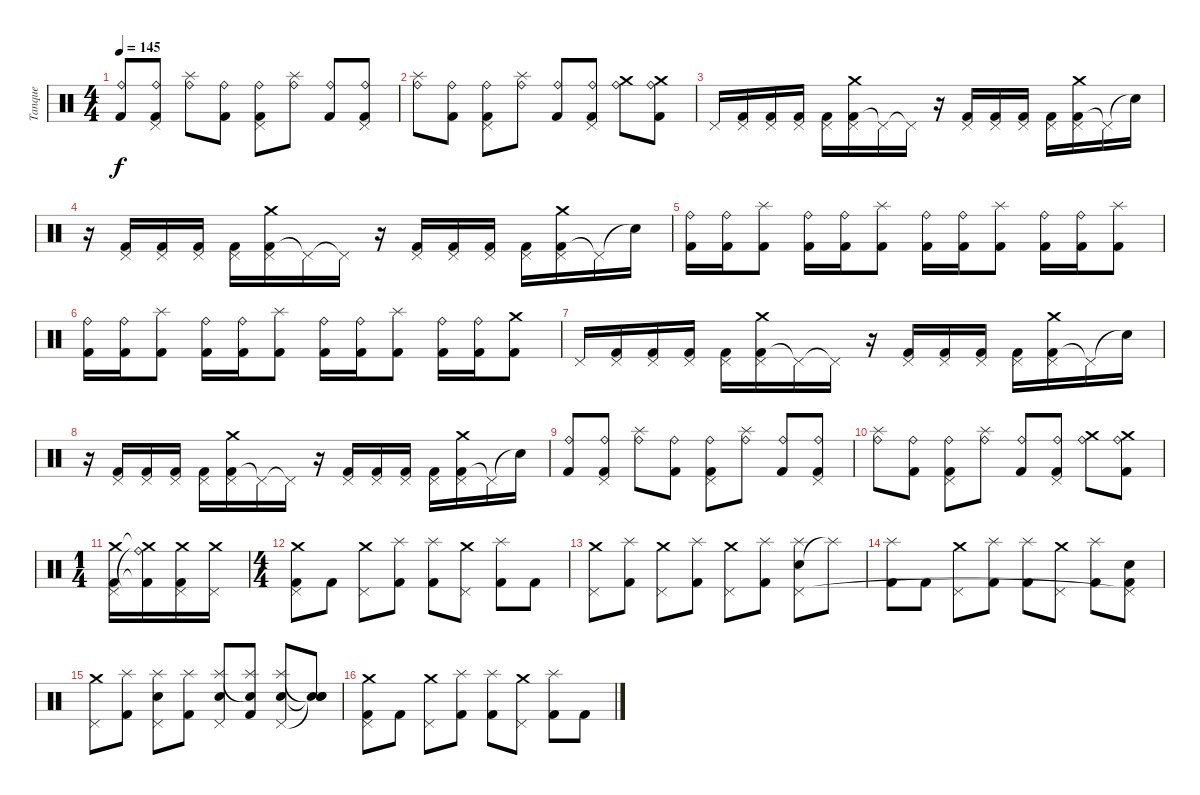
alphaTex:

\track ("Tanque" "Tanque") {instrument percussion}
\staff {score}
\articulation defaults
\ts (4 4)
\tempo 145
\clef neutral
\ks c
("Kick (hit) 2" "Ride (bell)").8{dy f} ("Kick (hit) 2" "Ride (bell)" "Pedal Hi-Hat (hit)").8 ("Ride (bell)" "Splash (hit)").8 ("Kick (hit) 2" "Ride (bell)").8 ("Kick (hit) 2" "Ride (bell)" "Pedal Hi-Hat (hit)").8 ("Ride (bell)" "Splash (hit)").8 ("Kick (hit) 2" "Ride (bell)").8 ("Kick (hit) 2" "Ride (bell)" "Pedal Hi-Hat (hit)").8 |
("Ride (bell)" "Splash (hit)").8 ("Kick (hit) 2" "Ride (bell)").8 ("Kick (hit) 2" "Ride (bell)" "Pedal Hi-Hat (hit)").8 ("Ride (bell)" "Splash (hit)").8 ("Kick (hit) 2" "Ride (bell)").8 ("Kick (hit) 2" "Ride (bell)" "Pedal Hi-Hat (hit)").8 ("Ride (bell)" "Crash medium (hit)").8 ("Kick (hit) 2" "Ride (bell)" "Crash medium (hit)").8 |
"Pedal Hi-Hat (hit)".16 ("Kick (hit) 2" "Pedal Hi-Hat (hit)").16 ("Kick (hit) 2" "Pedal Hi-Hat (hit)").16 ("Kick (hit) 2" "Pedal Hi-Hat (hit)").16 ("Kick (hit) 2" "Pedal Hi-Hat (hit)").16 ("Kick (hit) 2" "Pedal Hi-Hat (hit)" "Crash medium (hit)").16 "Pedal Hi-Hat (hit)"{t}.16 "Pedal Hi-Hat (hit)"{t}.16 r.16 ("Kick (hit) 2" "Pedal Hi-Hat (hit)").16 ("Kick (hit) 2" "Pedal Hi-Hat (hit)").16 ("Kick (hit) 2" "Pedal Hi-Hat (hit)").16 ("Kick (hit) 2" "Pedal Hi-Hat (hit)").16 ("Kick (hit) 2" "Pedal Hi-Hat (hit)" "Crash medium (hit)").16 "Pedal Hi-Hat (hit)"{t}.16 "Snare (hit)"{t}.16 |
r.16 ("Kick (hit) 2" "Pedal Hi-Hat (hit)").16 ("Kick (hit) 2" "Pedal Hi-Hat (hit)").16 ("Kick (hit) 2" "Pedal Hi-Hat (hit)").16 ("Kick (hit) 2" "Pedal Hi-Hat (hit)").16 ("Kick (hit) 2" "Pedal Hi-Hat (hit)" "Crash medium (hit)").16 "Pedal Hi-Hat (hit)"{t}.16 "Pedal Hi-Hat (hit)"{t}.16 r.16 ("Kick (hit) 2" "Pedal Hi-Hat (hit)").16 ("Kick (hit) 2" "Pedal Hi-Hat (hit)").16 ("Kick (hit) 2" "Pedal Hi-Hat (hit)").16 ("Kick (hit) 2" "Pedal Hi-Hat (hit)").16 ("Kick (hit) 2" "Pedal Hi-Hat (hit)" "Crash medium (hit)").16 "Pedal Hi-Hat (hit)"{t}.16 "Snare (hit)"{t}.16 |
("Kick (hit) 2" "Ride (bell)").16 ("Kick (hit) 2" "Ride (bell)").16 ("Kick (hit) 2" "Splash (hit)").8 ("Kick (hit) 2" "Ride (bell)").16 ("Kick (hit) 2" "Ride (bell)").16 ("Kick (hit) 2" "Splash (hit)").8 ("Kick (hit) 2" "Ride (bell)").16 ("Kick (hit) 2" "Ride (bell)").16 ("Kick (hit) 2" "Splash (hit)").8 ("Kick (hit) 2" "Ride (bell)").16 ("Kick (hit) 2" "Ride (bell)").16 ("Kick (hit) 2" "Splash (hit)").8 |
("Kick (hit) 2" "Ride (bell)").16 ("Kick (hit) 2" "Ride (bell)").16 ("Kick (hit) 2" "Splash (hit)").8 ("Kick (hit) 2" "Ride (bell)").16 ("Kick (hit) 2" "Ride (bell)").16 ("Kick (hit) 2" "Splash (hit)").8 ("Kick (hit) 2" "Ride (bell)").16 ("Kick (hit) 2" "Ride (bell)").16 ("Kick (hit) 2" "Splash (hit)").8 ("Kick (hit) 2" "Ride (bell)").16 ("Kick (hit) 2" "Ride (bell)").16 ("Kick (hit) 2" "Crash medium (hit)").8 |
"Pedal Hi-Hat (hit)".16 ("Kick (hit) 2" "Pedal Hi-Hat (hit)").16 ("Kick (hit) 2" "Pedal Hi-Hat (hit)").16 ("Kick (hit) 2" "Pedal Hi-Hat (hit)").16 ("Kick (hit) 2" "Pedal Hi-Hat (hit)").16 ("Kick (hit) 2" "Pedal Hi-Hat (hit)" "Crash medium (hit)").16 "Pedal Hi-Hat (hit)"{t}.16 "Pedal Hi-Hat (hit)"{t}.16 r.16 ("Kick (hit) 2" "Pedal Hi-Hat (hit)").16 ("Kick (hit) 2" "Pedal Hi-Hat (hit)").16 ("Kick (hit) 2" "Pedal Hi-Hat (hit)").16 ("Kick (hit) 2" "Pedal Hi-Hat (hit)").16 ("Kick (hit) 2" "Pedal Hi-Hat (hit)" "Crash medium (hit)").16 "Pedal Hi-Hat (hit)"{t}.16 "Snare (hit)"{t}.16 |
r.16 ("Kick (hit) 2" "Pedal Hi-Hat (hit)").16 ("Kick (hit) 2" "Pedal Hi-Hat (hit)").16 ("Kick (hit) 2" "Pedal Hi-Hat (hit)").16 ("Kick (hit) 2" "Pedal Hi-Hat (hit)").16 ("Kick (hit) 2" "Pedal Hi-Hat (hit)" "Crash medium (hit)").16 "Pedal Hi-Hat (hit)"{t}.16 "Pedal Hi-Hat (hit)"{t}.16 r.16 ("Kick (hit) 2" "Pedal Hi-Hat (hit)").16 ("Kick (hit) 2" "Pedal Hi-Hat (hit)").16 ("Kick (hit) 2" "Pedal Hi-Hat (hit)").16 ("Kick (hit) 2" "Pedal Hi-Hat (hit)").16 ("Kick (hit) 2" "Pedal Hi-Hat (hit)" "Crash medium (hit)").16 "Pedal Hi-Hat (hit)"{t}.16 "Snare (hit)"{t}.16 |
("Kick (hit) 2" "Ride (bell)").8 ("Kick (hit) 2" "Ride (bell)" "Pedal Hi-Hat (hit)").8 ("Ride (bell)" "Splash (hit)").8 ("Kick (hit) 2" "Ride (bell)").8 ("Kick (hit) 2" "Ride (bell)" "Pedal Hi-Hat (hit)").8 ("Ride (bell)" "Splash (hit)").8 ("Kick (hit) 2" "Ride (bell)").8 ("Kick (hit) 2" "Ride (bell)" "Pedal Hi-Hat (hit)").8 |
("Ride (bell)" "Splash (hit)").8 ("Kick (hit) 2" "Ride (bell)").8 ("Kick (hit) 2" "Ride (bell)" "Pedal Hi-Hat (hit)").8 ("Ride (bell)" "Splash (hit)").8 ("Kick (hit) 2" "Ride (bell)").8 ("Kick (hit) 2" "Ride (bell)" "Pedal Hi-Hat (hit)").8 ("Ride (bell)" "Crash medium (hit)").8 ("Kick (hit) 2" "Ride (bell)" "Crash medium (hit)").8 |
\ts (1 4)
("Kick (hit) 2" "Pedal Hi-Hat (hit)" "Crash medium (hit)").16 ("Kick (hit) 2"{t} "Ride (bell)"{t} "Crash medium (hit)"{t}).16 ("Kick (hit) 2" "Pedal Hi-Hat (hit)" "Crash medium (hit)").16 ("Pedal Hi-Hat (hit)" "Crash medium (hit)").16 |
\ts (4 4)
("Kick (hit) 2" "Crash medium (hit)" "Pedal Hi-Hat (hit)").8 "Kick (hit) 2".8 ("Crash medium (hit)" "Pedal Hi-Hat (hit)").8 ("Kick (hit) 2" "Splash (hit)").8 ("Kick (hit) 2" "Splash (hit)").8 ("Crash medium (hit)" "Pedal Hi-Hat (hit)").8 ("Kick (hit) 2" "Splash (hit)").8 "Kick (hit) 2".8 |
("Crash medium (hit)" "Pedal Hi-Hat (hit)").8 ("Kick (hit) 2" "Splash (hit)").8 ("Crash medium (hit)" "Pedal Hi-Hat (hit)").8 ("Kick (hit) 2" "Splash (hit)").8 ("Crash medium (hit)" "Pedal Hi-Hat (hit)").8 ("Kick (hit) 2" "Splash (hit)").8 ("Snare (hit) 2" "Splash (hit)" "Pedal Hi-Hat (hit)").8 "Splash (hit)"{t}.8 |
("Kick (hit) 2" "Splash (hit)").8 "Kick (hit) 2".8 ("Crash medium (hit)" "Pedal Hi-Hat (hit)").8 ("Kick (hit) 2" "Splash (hit)").8 ("Kick (hit) 2" "Splash (hit)").8 ("Crash medium (hit)" "Pedal Hi-Hat (hit)").8 ("Kick (hit) 2" "Splash (hit)").8 ("Kick (hit) 2" "Snare (hit) 2" "Pedal Hi-Hat (hit)"{t}).8 |
("Crash medium (hit)" "Pedal Hi-Hat (hit)").8 ("Kick (hit) 2" "Splash (hit)").8 ("Snare (hit) 2" "Splash (hit)" "Pedal Hi-Hat (hit)").8 ("Kick (hit) 2" "Splash (hit)").8 ("Snare (hit) 2" "Splash (hit)" "Pedal Hi-Hat (hit)").8 ("Kick (hit) 2" "Snare (hit)"{t} "Splash (hit)").8 ("Snare (hit) 2" "Splash (hit)" "Pedal Hi-Hat (hit)").8 ("Snare (hit)"{t} "Snare (hit)"{t} "Snare (hit)"{t}).8 |
("Kick (hit) 2" "Crash medium (hit)" "Pedal Hi-Hat (hit)").8 "Kick (hit) 2".8 ("Crash medium (hit)" "Pedal Hi-Hat (hit)").8 ("Kick (hit) 2" "Splash (hit)").8 ("Kick (hit) 2" "Splash (hit)").8 ("Crash medium (hit)" "Pedal Hi-Hat (hit)").8 ("Kick (hit) 2" "Splash (hit)").8 "Kick (hit) 2".8
